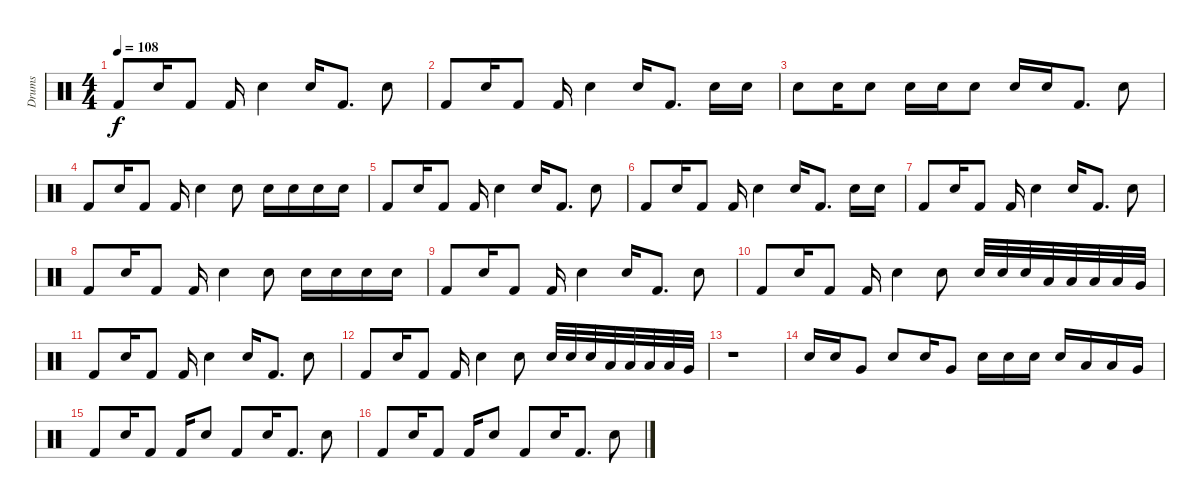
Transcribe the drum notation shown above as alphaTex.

\track ("Drums" "Drums") {instrument percussion}
\staff {score}
\articulation defaults
\ts (4 4)
\tempo 108
\clef neutral
\ks c "Kick (hit) 2".8{dy f} "Electric Snare (hit)".16 "Kick (hit) 2".8 "Kick (hit) 2".16 "Electric Snare (hit)".4 "Electric Snare (hit)".16 "Kick (hit) 2".8{d} "Electric Snare (hit)".8
|
"Kick (hit) 2".8 "Electric Snare (hit)".16 "Kick (hit) 2".8 "Kick (hit) 2".16 "Electric Snare (hit)".4 "Electric Snare (hit)".16 "Kick (hit) 2".8{d} "Electric Snare (hit)".16 "Electric Snare (hit)".16 |
"Electric Snare (hit)".8 "Electric Snare (hit)".16 "Electric Snare (hit)".8 "Electric Snare (hit)".16 "Electric Snare (hit)".16 "Electric Snare (hit)".8 "Electric Snare (hit)".16 "Electric Snare (hit)".16 "Kick (hit) 2".8{d} "Electric Snare (hit)".8 |
"Kick (hit) 2".8 "Electric Snare (hit)".16 "Kick (hit) 2".8 "Kick (hit) 2".16 "Electric Snare (hit)".4 "Electric Snare (hit)".8 "Electric Snare (hit)".16 "Electric Snare (hit)".16 "Electric Snare (hit)".16 "Electric Snare (hit)".16 |
"Kick (hit) 2".8 "Electric Snare (hit)".16 "Kick (hit) 2".8 "Kick (hit) 2".16 "Electric Snare (hit)".4 "Electric Snare (hit)".16 "Kick (hit) 2".8{d} "Electric Snare (hit)".8 |
"Kick (hit) 2".8 "Electric Snare (hit)".16 "Kick (hit) 2".8 "Kick (hit) 2".16 "Electric Snare (hit)".4 "Electric Snare (hit)".16 "Kick (hit) 2".8{d} "Electric Snare (hit)".16 "Electric Snare (hit)".16 |
"Kick (hit) 2".8 "Electric Snare (hit)".16 "Kick (hit) 2".8 "Kick (hit) 2".16 "Electric Snare (hit)".4 "Electric Snare (hit)".16 "Kick (hit) 2".8{d} "Electric Snare (hit)".8 |
"Kick (hit) 2".8 "Electric Snare (hit)".16 "Kick (hit) 2".8 "Kick (hit) 2".16 "Electric Snare (hit)".4 "Electric Snare (hit)".8 "Electric Snare (hit)".16 "Electric Snare (hit)".16 "Electric Snare (hit)".16 "Electric Snare (hit)".16 |
"Kick (hit) 2".8 "Electric Snare (hit)".16 "Kick (hit) 2".8 "Kick (hit) 2".16 "Electric Snare (hit)".4 "Electric Snare (hit)".16 "Kick (hit) 2".8{d} "Electric Snare (hit)".8 |
"Kick (hit) 2".8 "Electric Snare (hit)".16 "Kick (hit) 2".8 "Kick (hit) 2".16 "Electric Snare (hit)".4 "Electric Snare (hit)".8 "Electric Snare (hit)".32 "Electric Snare (hit)".32 "Electric Snare (hit)".32 "Low Tom (hit)".32 "Low Tom (hit)".32 "Low Tom (hit)".32 "Low Tom (hit)".32 "Very Low Tom (hit)".32 |
"Kick (hit) 2".8 "Electric Snare (hit)".16 "Kick (hit) 2".8 "Kick (hit) 2".16 "Electric Snare (hit)".4 "Electric Snare (hit)".16 "Kick (hit) 2".8{d} "Electric Snare (hit)".8 |
"Kick (hit) 2".8 "Electric Snare (hit)".16 "Kick (hit) 2".8 "Kick (hit) 2".16 "Electric Snare (hit)".4 "Electric Snare (hit)".8 "Electric Snare (hit)".32 "Electric Snare (hit)".32 "Electric Snare (hit)".32 "Low Tom (hit)".32 "Low Tom (hit)".32 "Low Tom (hit)".32 "Low Tom (hit)".32 "Very Low Tom (hit)".32 |
r.1 |
"Electric Snare (hit)".16 "Electric Snare (hit)".16 "Very Low Tom (hit)".8 "Electric Snare (hit)".8 "Electric Snare (hit)".16 "Very Low Tom (hit)".8 "Electric Snare (hit)".16 "Electric Snare (hit)".16 "Electric Snare (hit)".16 "Electric Snare (hit)".16 "Low Tom (hit)".16 "Low Tom (hit)".16 "Very Low Tom (hit)".16 |
"Kick (hit) 2".8 "Electric Snare (hit)".16 "Kick (hit) 2".8 "Kick (hit) 2".16 "Electric Snare (hit)".8 "Kick (hit) 2".8 "Electric Snare (hit)".16 "Kick (hit) 2".8{d} "Electric Snare (hit)".8 |
"Kick (hit) 2".8 "Electric Snare (hit)".16 "Kick (hit) 2".8 "Kick (hit) 2".16 "Electric Snare (hit)".8 "Kick (hit) 2".8 "Electric Snare (hit)".16 "Kick (hit) 2".8{d} "Electric Snare (hit)".8
